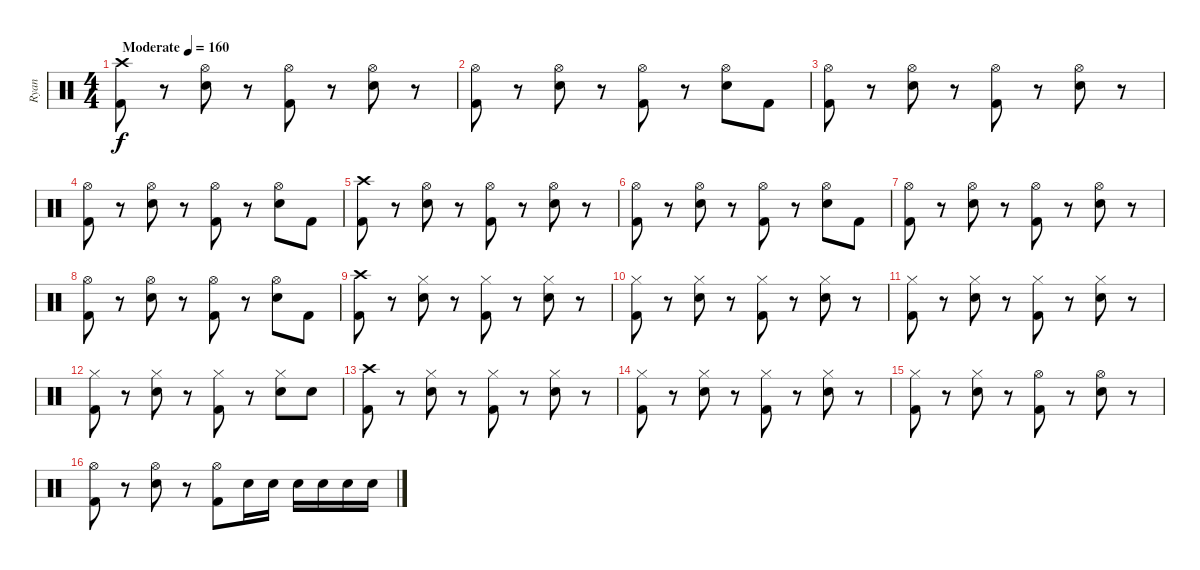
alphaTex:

\track ("Ryan" "Ryan") {instrument percussion}
\staff {score}
\articulation defaults
\ts (4 4)
\tempo (160 "Moderate")
\clef neutral
\ks c
("Crash high (hit)" "Kick (hit) 2").8{dy f} r.8 ("Hi-Hat (open)" "Snare (hit) 2").8 r.8 ("Hi-Hat (open)" "Kick (hit) 2").8 r.8 ("Hi-Hat (open)" "Snare (hit) 2").8 r.8 |
("Hi-Hat (open)" "Kick (hit) 2").8 r.8 ("Hi-Hat (open)" "Snare (hit) 2").8 r.8 ("Hi-Hat (open)" "Kick (hit) 2").8 r.8 ("Hi-Hat (open)" "Snare (hit) 2").8 "Kick (hit) 2".8 |
("Hi-Hat (open)" "Kick (hit) 2").8 r.8 ("Hi-Hat (open)" "Snare (hit) 2").8 r.8 ("Hi-Hat (open)" "Kick (hit) 2").8 r.8 ("Hi-Hat (open)" "Snare (hit) 2").8 r.8 |
("Hi-Hat (open)" "Kick (hit) 2").8 r.8 ("Hi-Hat (open)" "Snare (hit) 2").8 r.8 ("Hi-Hat (open)" "Kick (hit) 2").8 r.8 ("Hi-Hat (open)" "Snare (hit) 2").8 "Kick (hit) 2".8 |
("Crash high (hit)" "Kick (hit) 2").8 r.8 ("Hi-Hat (open)" "Snare (hit) 2").8 r.8 ("Hi-Hat (open)" "Kick (hit) 2").8 r.8 ("Hi-Hat (open)" "Snare (hit) 2").8 r.8 |
("Hi-Hat (open)" "Kick (hit) 2").8 r.8 ("Hi-Hat (open)" "Snare (hit) 2").8 r.8 ("Hi-Hat (open)" "Kick (hit) 2").8 r.8 ("Hi-Hat (open)" "Snare (hit) 2").8 "Kick (hit) 2".8 |
("Hi-Hat (open)" "Kick (hit) 2").8 r.8 ("Hi-Hat (open)" "Snare (hit) 2").8 r.8 ("Hi-Hat (open)" "Kick (hit) 2").8 r.8 ("Hi-Hat (open)" "Snare (hit) 2").8 r.8 |
("Hi-Hat (open)" "Kick (hit) 2").8 r.8 ("Hi-Hat (open)" "Snare (hit) 2").8 r.8 ("Hi-Hat (open)" "Kick (hit) 2").8 r.8 ("Hi-Hat (open)" "Snare (hit) 2").8 "Kick (hit) 2".8 |
("Crash high (hit)" "Kick (hit) 2").8 r.8 ("Hi-Hat (closed)" "Snare (hit) 2").8 r.8 ("Hi-Hat (closed)" "Kick (hit) 2").8 r.8 ("Hi-Hat (closed)" "Snare (hit) 2").8 r.8 |
("Hi-Hat (closed)" "Kick (hit) 2").8 r.8 ("Hi-Hat (closed)" "Snare (hit) 2").8 r.8 ("Hi-Hat (closed)" "Kick (hit) 2").8 r.8 ("Hi-Hat (closed)" "Snare (hit) 2").8 r.8 |
("Hi-Hat (closed)" "Kick (hit) 2").8 r.8 ("Hi-Hat (closed)" "Snare (hit) 2").8 r.8 ("Hi-Hat (closed)" "Kick (hit) 2").8 r.8 ("Hi-Hat (closed)" "Snare (hit) 2").8 r.8 |
("Hi-Hat (closed)" "Kick (hit) 2").8 r.8 ("Hi-Hat (closed)" "Snare (hit) 2").8 r.8 ("Hi-Hat (closed)" "Kick (hit) 2").8 r.8 ("Hi-Hat (closed)" "Snare (hit) 2").8 "Snare (hit) 2".8 |
("Crash high (hit)" "Kick (hit) 2").8 r.8 ("Hi-Hat (closed)" "Snare (hit) 2").8 r.8 ("Hi-Hat (closed)" "Kick (hit) 2").8 r.8 ("Hi-Hat (closed)" "Snare (hit) 2").8 r.8 |
("Hi-Hat (closed)" "Kick (hit) 2").8 r.8 ("Hi-Hat (closed)" "Snare (hit) 2").8 r.8 ("Hi-Hat (closed)" "Kick (hit) 2").8 r.8 ("Hi-Hat (closed)" "Snare (hit) 2").8 r.8 |
("Hi-Hat (closed)" "Kick (hit) 2").8 r.8 ("Hi-Hat (closed)" "Snare (hit) 2").8 r.8 ("Hi-Hat (open)" "Kick (hit) 2").8 r.8 ("Hi-Hat (open)" "Snare (hit) 2").8 r.8 |
("Hi-Hat (open)" "Kick (hit) 2").8 r.8 ("Hi-Hat (open)" "Snare (hit) 2").8 r.8 ("Hi-Hat (open)" "Kick (hit) 2").8 "Snare (hit) 2".16 "Snare (hit) 2".16 "Snare (hit) 2".16 "Snare (hit) 2".16 "Snare (hit) 2".16 "Snare (hit) 2".16
